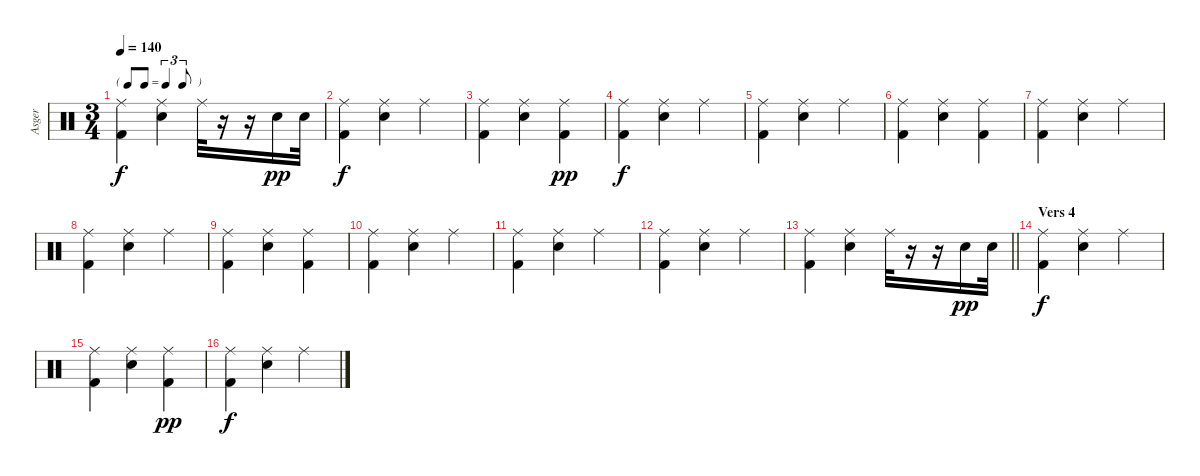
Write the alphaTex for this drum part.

\track ("Asger " "Asger ") {instrument percussion}
\staff {score}
\articulation defaults
\ts (3 4)
\tf triplet8th
\tempo 140
\clef neutral
\ks c
("Ride (middle)" "Kick (hit) 2").4{dy f} ("Ride (middle)" "Snare (hit) 2").4 "Ride (middle)".32 r.16 r.16 "Snare (hit) 2".16{dy pp} "Snare (hit) 2".32 |
("Ride (middle)" "Kick (hit) 2").4{dy f} ("Ride (middle)" "Snare (hit) 2").4 "Ride (middle)".4 |
("Ride (middle)" "Kick (hit) 2").4 ("Ride (middle)" "Snare (hit) 2").4 ("Ride (middle)" "Kick (hit) 2").4{dy pp} |
("Ride (middle)" "Kick (hit) 2").4{dy f} ("Ride (middle)" "Snare (hit) 2").4 "Ride (middle)".4 |
("Ride (middle)" "Kick (hit) 2").4 ("Ride (middle)" "Snare (hit) 2").4 "Ride (middle)".4 |
("Ride (middle)" "Kick (hit) 2").4 ("Ride (middle)" "Snare (hit) 2").4 ("Ride (middle)" "Kick (hit) 2").4 |
("Ride (middle)" "Kick (hit) 2").4 ("Ride (middle)" "Snare (hit) 2").4 "Ride (middle)".4 |
("Ride (middle)" "Kick (hit) 2").4 ("Ride (middle)" "Snare (hit) 2").4 "Ride (middle)".4 |
("Ride (middle)" "Kick (hit) 2").4 ("Ride (middle)" "Snare (hit) 2").4 ("Ride (middle)" "Kick (hit) 2").4 |
("Ride (middle)" "Kick (hit) 2").4 ("Ride (middle)" "Snare (hit) 2").4 "Ride (middle)".4 |
("Ride (middle)" "Kick (hit) 2").4 ("Ride (middle)" "Snare (hit) 2").4 "Ride (middle)".4 |
("Ride (middle)" "Kick (hit) 2").4 ("Ride (middle)" "Snare (hit) 2").4 "Ride (middle)".4 |
\barLineRight lightlight
("Ride (middle)" "Kick (hit) 2").4 ("Ride (middle)" "Snare (hit) 2").4 "Ride (middle)".32 r.16 r.16 "Snare (hit) 2".16{dy pp} "Snare (hit) 2".32 |
\section ("" "Vers 4")
("Ride (middle)" "Kick (hit) 2").4{dy f} ("Ride (middle)" "Snare (hit) 2").4 "Ride (middle)".4 |
("Ride (middle)" "Kick (hit) 2").4 ("Ride (middle)" "Snare (hit) 2").4 ("Ride (middle)" "Kick (hit) 2").4{dy pp} |
("Ride (middle)" "Kick (hit) 2").4{dy f} ("Ride (middle)" "Snare (hit) 2").4 "Ride (middle)".4
